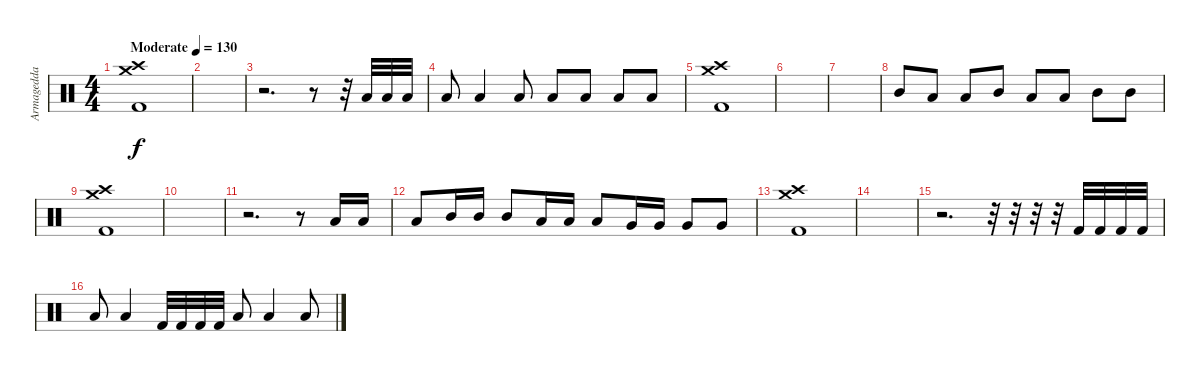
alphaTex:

\track ("Armagedda" "Armagedda") {instrument percussion}
\staff {score}
\articulation defaults
\ts (4 4)
\tempo (130 "Moderate")
\clef neutral
\ks c
("Crash high (hit)" "Crash medium (hit)" "Kick (hit) 2").1{dy f} |
|
r.2{d} r.8 r.32 "Low Tom (hit)".32 "Low Tom (hit)".32 "Low Tom (hit)".32 |
"Low Tom (hit)".8 "Low Tom (hit)".4 "Low Tom (hit)".8 "Low Tom (hit)".8 "Low Tom (hit)".8 "Low Tom (hit)".8 "Low Tom (hit)".8 |
("Crash high (hit)" "Crash medium (hit)" "Kick (hit) 2").1 |
|
|
"Mid Tom (hit)".8 "Low Tom (hit)".8 "Low Tom (hit)".8 "Mid Tom (hit)".8 "Low Tom (hit)".8 "Low Tom (hit)".8 "Mid Tom (hit)".8 "Mid Tom (hit)".8 |
("Crash high (hit)" "Crash medium (hit)" "Kick (hit) 2").1 |
|
r.2{d} r.8 "Low Tom (hit)".16 "Low Tom (hit)".16 |
"Low Tom (hit)".8 "Mid Tom (hit)".16 "Mid Tom (hit)".16 "Mid Tom (hit)".8 "Low Tom (hit)".16 "Low Tom (hit)".16 "Low Tom (hit)".8 "Very Low Tom (hit)".16 "Very Low Tom (hit)".16 "Very Low Tom (hit)".8 "Very Low Tom (hit)".8 |
("Crash high (hit)" "Crash medium (hit)" "Kick (hit) 2").1 |
|
r.2{d} r.32 r.32 r.32 r.32 "Kick (hit) 2".32 "Kick (hit) 2".32 "Kick (hit) 2".32 "Kick (hit) 2".32 |
"Low Tom (hit)".8 "Low Tom (hit)".4 "Kick (hit) 2".32 "Kick (hit) 2".32 "Kick (hit) 2".32 "Kick (hit) 2".32 "Low Tom (hit)".8 "Low Tom (hit)".4 "Low Tom (hit)".8
